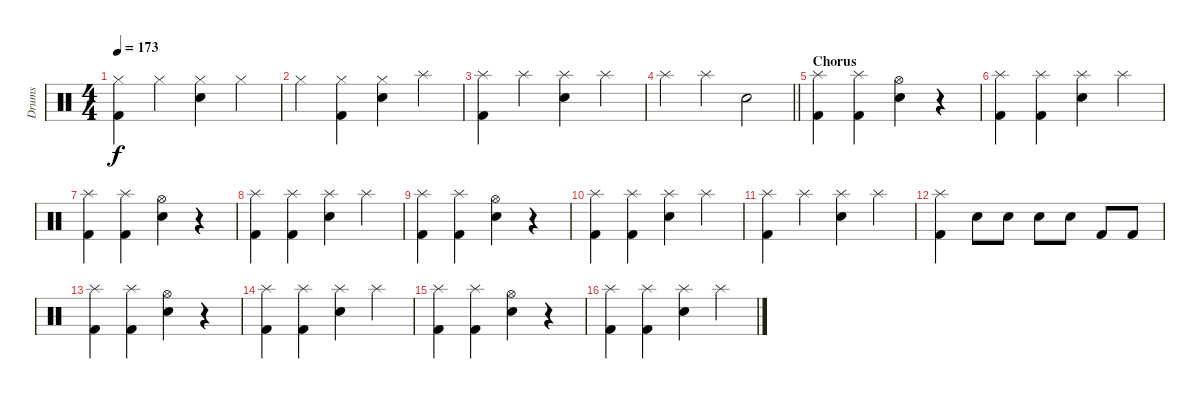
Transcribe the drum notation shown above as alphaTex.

\track ("Drums" "Drums") {instrument percussion}
\staff {score}
\articulation defaults
\ts (4 4)
\tempo 173
\clef neutral
\ks c
("Hi-Hat (closed)" "Kick (hit) 2").4{dy f} "Hi-Hat (closed)".4 ("Hi-Hat (closed)" "Snare (hit) 2").4 "Hi-Hat (closed)".4 |
"Hi-Hat (closed)".4 ("Hi-Hat (closed)" "Kick (hit) 2").4 ("Hi-Hat (closed)" "Snare (hit) 2").4 "Splash (hit)".4 |
("Splash (hit)" "Kick (hit) 2").4 "Splash (hit)".4 ("Splash (hit)" "Snare (hit) 2").4 "Splash (hit)".4 |
\barLineRight lightlight "Splash (hit)".4 "Splash (hit)".4 "Snare (hit) 2".2
|
\section ("" "Chorus")
("Splash (hit)" "Kick (hit) 2").4 ("Splash (hit)" "Kick (hit) 2").4 ("Hi-Hat (open)" "Snare (hit) 2").4 r.4 |
("Splash (hit)" "Kick (hit) 2").4 ("Splash (hit)" "Kick (hit) 2").4 ("Splash (hit)" "Snare (hit) 2").4 "Splash (hit)".4 |
("Splash (hit)" "Kick (hit) 2").4 ("Splash (hit)" "Kick (hit) 2").4 ("Hi-Hat (open)" "Snare (hit) 2").4 r.4 |
("Splash (hit)" "Kick (hit) 2").4 ("Splash (hit)" "Kick (hit) 2").4 ("Splash (hit)" "Snare (hit) 2").4 "Splash (hit)".4 |
("Splash (hit)" "Kick (hit) 2").4 ("Splash (hit)" "Kick (hit) 2").4 ("Hi-Hat (open)" "Snare (hit) 2").4 r.4 |
("Splash (hit)" "Kick (hit) 2").4 ("Splash (hit)" "Kick (hit) 2").4 ("Splash (hit)" "Snare (hit) 2").4 "Splash (hit)".4 |
("Splash (hit)" "Kick (hit) 2").4 "Splash (hit)".4 ("Splash (hit)" "Snare (hit) 2").4 "Splash (hit)".4 |
("Splash (hit)" "Kick (hit) 2").4 "Snare (hit) 2".8 "Snare (hit) 2".8 "Snare (hit) 2".8 "Snare (hit) 2".8 "Kick (hit) 2".8 "Kick (hit) 2".8 |
("Splash (hit)" "Kick (hit) 2").4 ("Splash (hit)" "Kick (hit) 2").4 ("Hi-Hat (open)" "Snare (hit) 2").4 r.4 |
("Splash (hit)" "Kick (hit) 2").4 ("Splash (hit)" "Kick (hit) 2").4 ("Splash (hit)" "Snare (hit) 2").4 "Splash (hit)".4 |
("Splash (hit)" "Kick (hit) 2").4 ("Splash (hit)" "Kick (hit) 2").4 ("Hi-Hat (open)" "Snare (hit) 2").4 r.4 |
("Splash (hit)" "Kick (hit) 2").4 ("Splash (hit)" "Kick (hit) 2").4 ("Splash (hit)" "Snare (hit) 2").4 "Splash (hit)".4
